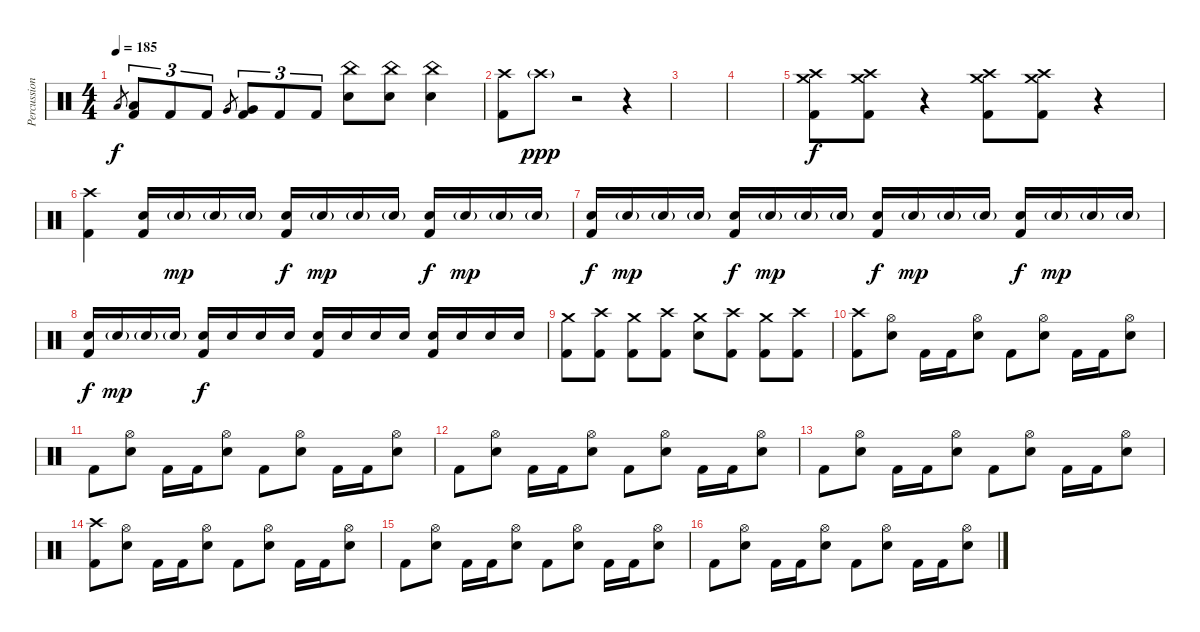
\track ("Percussion" "Percussion") {instrument percussion}
\staff {score}
\articulation defaults
\ts (4 4)
\tempo 185
\clef neutral
\ks c "Low Tom (hit)".8{gr dy f}
("Kick (hit) 2" "Low Tom (hit)").8{tu (3 2)} "Kick (hit) 2".8{tu (3 2)} "Kick (hit) 2".8{tu (3 2)} "Very Low Tom (hit)".8{gr} ("Kick (hit) 2" "Very Low Tom (hit)").8{tu (3 2)} "Kick (hit) 2".8{tu (3 2)} "Kick (hit) 2".8{tu (3 2)} ("Electric Snare (hit)" "China (hit)").8 ("Electric Snare (hit)" "China (hit)").8 ("Electric Snare (hit)" "China (hit)").4 |
("Kick (hit) 2" "Crash high (hit)").8 "Crash high (hit)"{g}.8{dy ppp} r.2 r.4 |
|
|
("Kick (hit) 2" "Crash medium (hit)" "Crash high (hit)").8{dy f} ("Kick (hit) 2" "Crash medium (hit)" "Crash high (hit)").8 r.4 ("Kick (hit) 2" "Crash medium (hit)" "Crash high (hit)").8 ("Kick (hit) 2" "Crash medium (hit)" "Crash high (hit)").8 r.4 |
("Kick (hit) 2" "Crash high (hit)").4 ("Kick (hit) 2" "Electric Snare (hit)").16 "Electric Snare (hit)"{g}.16{dy mp} "Electric Snare (hit)"{g}.16 "Electric Snare (hit)"{g}.16 ("Kick (hit) 2" "Electric Snare (hit)").16{dy f} "Electric Snare (hit)"{g}.16{dy mp} "Electric Snare (hit)"{g}.16 "Electric Snare (hit)"{g}.16 ("Kick (hit) 2" "Electric Snare (hit)").16{dy f} "Electric Snare (hit)"{g}.16{dy mp} "Electric Snare (hit)"{g}.16 "Electric Snare (hit)"{g}.16 |
("Kick (hit) 2" "Electric Snare (hit)").16{dy f} "Electric Snare (hit)"{g}.16{dy mp} "Electric Snare (hit)"{g}.16 "Electric Snare (hit)"{g}.16 ("Kick (hit) 2" "Electric Snare (hit)").16{dy f} "Electric Snare (hit)"{g}.16{dy mp} "Electric Snare (hit)"{g}.16 "Electric Snare (hit)"{g}.16 ("Kick (hit) 2" "Electric Snare (hit)").16{dy f} "Electric Snare (hit)"{g}.16{dy mp} "Electric Snare (hit)"{g}.16 "Electric Snare (hit)"{g}.16 ("Kick (hit) 2" "Electric Snare (hit)").16{dy f} "Electric Snare (hit)"{g}.16{dy mp} "Electric Snare (hit)"{g}.16 "Electric Snare (hit)"{g}.16 |
("Kick (hit) 2" "Electric Snare (hit)").16{dy f} "Electric Snare (hit)"{g}.16{dy mp} "Electric Snare (hit)"{g}.16 "Electric Snare (hit)"{g}.16 ("Kick (hit) 2" "Electric Snare (hit)").16{dy f} "Electric Snare (hit)".16 "Electric Snare (hit)".16 "Electric Snare (hit)".16 ("Kick (hit) 2" "Electric Snare (hit)").16 "Electric Snare (hit)".16 "Electric Snare (hit)".16 "Electric Snare (hit)".16 ("Kick (hit) 2" "Electric Snare (hit)").16 "Electric Snare (hit)".16 "Electric Snare (hit)".16 "Electric Snare (hit)".16 |
("Kick (hit) 2" "Crash medium (hit)").8 ("Kick (hit) 2" "Crash high (hit)").8 ("Kick (hit) 2" "Crash medium (hit)").8 ("Kick (hit) 2" "Crash high (hit)").8 ("Electric Snare (hit)" "Crash medium (hit)").8 ("Kick (hit) 2" "Crash high (hit)").8 ("Kick (hit) 2" "Crash medium (hit)").8 ("Kick (hit) 2" "Crash high (hit)").8 |
("Kick (hit) 2" "Crash high (hit)").8 ("Electric Snare (hit)" "Hi-Hat (open)").8 "Kick (hit) 2".16 "Kick (hit) 2".16 ("Electric Snare (hit)" "Hi-Hat (open)").8 "Kick (hit) 2".8 ("Electric Snare (hit)" "Hi-Hat (open)").8 "Kick (hit) 2".16 "Kick (hit) 2".16 ("Electric Snare (hit)" "Hi-Hat (open)").8 |
"Kick (hit) 2".8 ("Electric Snare (hit)" "Hi-Hat (open)").8 "Kick (hit) 2".16 "Kick (hit) 2".16 ("Electric Snare (hit)" "Hi-Hat (open)").8 "Kick (hit) 2".8 ("Electric Snare (hit)" "Hi-Hat (open)").8 "Kick (hit) 2".16 "Kick (hit) 2".16 ("Electric Snare (hit)" "Hi-Hat (open)").8 |
"Kick (hit) 2".8 ("Electric Snare (hit)" "Hi-Hat (open)").8 "Kick (hit) 2".16 "Kick (hit) 2".16 ("Electric Snare (hit)" "Hi-Hat (open)").8 "Kick (hit) 2".8 ("Electric Snare (hit)" "Hi-Hat (open)").8 "Kick (hit) 2".16 "Kick (hit) 2".16 ("Electric Snare (hit)" "Hi-Hat (open)").8 |
"Kick (hit) 2".8 ("Electric Snare (hit)" "Hi-Hat (open)").8 "Kick (hit) 2".16 "Kick (hit) 2".16 ("Electric Snare (hit)" "Hi-Hat (open)").8 "Kick (hit) 2".8 ("Electric Snare (hit)" "Hi-Hat (open)").8 "Kick (hit) 2".16 "Kick (hit) 2".16 ("Electric Snare (hit)" "Hi-Hat (open)").8 |
("Kick (hit) 2" "Crash high (hit)").8 ("Electric Snare (hit)" "Hi-Hat (open)").8 "Kick (hit) 2".16 "Kick (hit) 2".16 ("Electric Snare (hit)" "Hi-Hat (open)").8 "Kick (hit) 2".8 ("Electric Snare (hit)" "Hi-Hat (open)").8 "Kick (hit) 2".16 "Kick (hit) 2".16 ("Electric Snare (hit)" "Hi-Hat (open)").8 |
"Kick (hit) 2".8 ("Electric Snare (hit)" "Hi-Hat (open)").8 "Kick (hit) 2".16 "Kick (hit) 2".16 ("Electric Snare (hit)" "Hi-Hat (open)").8 "Kick (hit) 2".8 ("Electric Snare (hit)" "Hi-Hat (open)").8 "Kick (hit) 2".16 "Kick (hit) 2".16 ("Electric Snare (hit)" "Hi-Hat (open)").8 |
"Kick (hit) 2".8 ("Electric Snare (hit)" "Hi-Hat (open)").8 "Kick (hit) 2".16 "Kick (hit) 2".16 ("Electric Snare (hit)" "Hi-Hat (open)").8 "Kick (hit) 2".8 ("Electric Snare (hit)" "Hi-Hat (open)").8 "Kick (hit) 2".16 "Kick (hit) 2".16 ("Electric Snare (hit)" "Hi-Hat (open)").8
